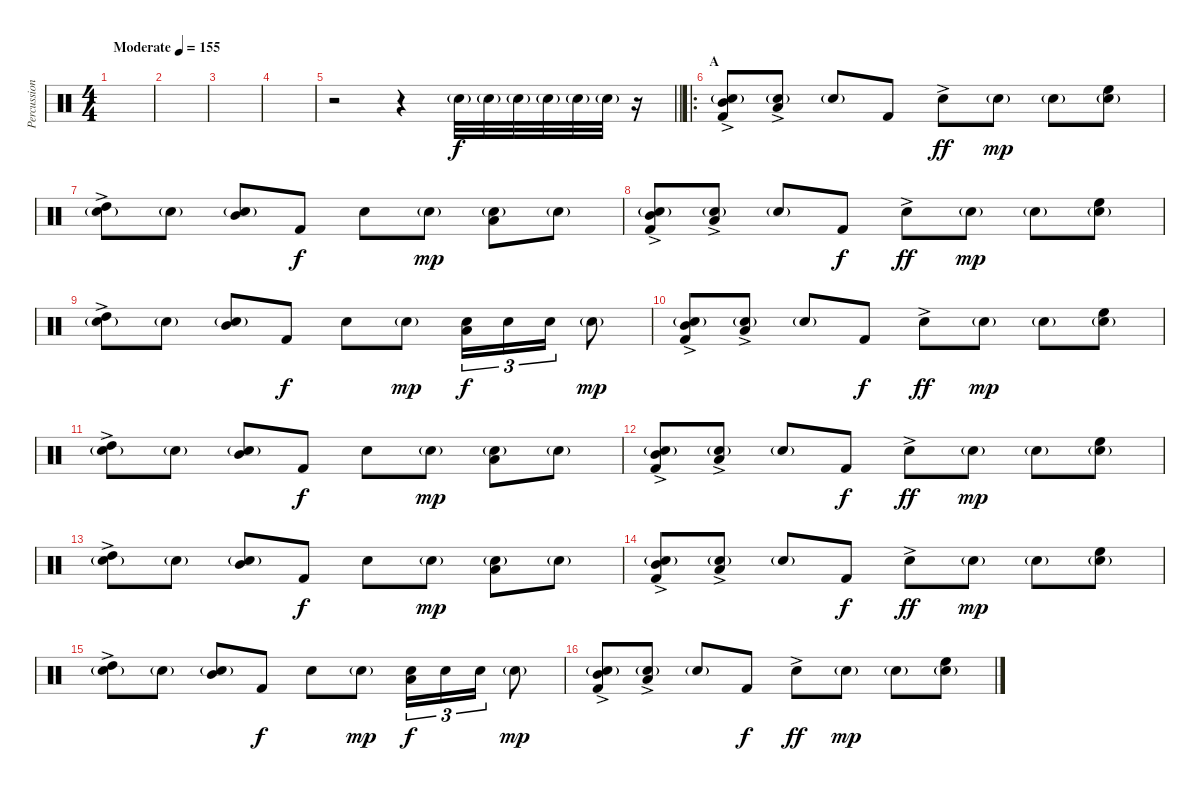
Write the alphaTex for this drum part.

\track ("Percussion" "Percussion") {instrument percussion}
\staff {score}
\articulation defaults
\ts (4 4)
\tempo (155 "Moderate")
\clef neutral
\ks c
|
|
|
|
\barLineRight lightlight
r.2 r.4 "Snare (hit) 2"{g}.32 "Snare (hit) 2"{g}.32 "Snare (hit) 2"{g}.32 "Snare (hit) 2"{g}.32 "Snare (hit) 2"{g}.32 "Snare (hit) 2"{g}.32 r.16 |
\ro
\section ("" "A")
("Mid Tom (hit)"{ac} "Snare (hit) 2"{g} "Kick (hit) 2").8 ("Low Tom (hit)"{ac} "Snare (hit) 2"{g}).8 "Snare (hit) 2"{g}.8 "Kick (hit) 2".8{dy f} "Snare (hit) 2"{ac}.8{dy ff} "Snare (hit) 2"{g}.8{dy mp} "Snare (hit) 2"{g}.8 ("High Floor Tom (hit)" "Snare (hit) 2"{g}).8 |
("High Tom (hit)"{ac} "Snare (hit) 2"{g}).8 "Snare (hit) 2"{g}.8 ("Mid Tom (hit)" "Snare (hit) 2"{g}).8 "Kick (hit) 2".8{dy f} "Snare (hit) 2".8 "Snare (hit) 2"{g}.8{dy mp} ("Low Tom (hit)" "Snare (hit) 2"{g}).8 "Snare (hit) 2"{g}.8 |
("Mid Tom (hit)"{ac} "Snare (hit) 2"{g} "Kick (hit) 2").8 ("Low Tom (hit)"{ac} "Snare (hit) 2"{g}).8 "Snare (hit) 2"{g}.8 "Kick (hit) 2".8{dy f} "Snare (hit) 2"{ac}.8{dy ff} "Snare (hit) 2"{g}.8{dy mp} "Snare (hit) 2"{g}.8 ("High Floor Tom (hit)" "Snare (hit) 2"{g}).8 |
("High Tom (hit)"{ac} "Snare (hit) 2"{g}).8 "Snare (hit) 2"{g}.8 ("Mid Tom (hit)" "Snare (hit) 2"{g}).8 "Kick (hit) 2".8{dy f} "Snare (hit) 2".8 "Snare (hit) 2"{g}.8{dy mp} ("Low Tom (hit)" "Snare (hit) 2").16{tu (3 2) dy f} "Snare (hit) 2".16{tu (3 2)} "Snare (hit) 2".16{tu (3 2)} "Snare (hit) 2"{g}.8{dy mp} |
("Mid Tom (hit)"{ac} "Snare (hit) 2"{g} "Kick (hit) 2").8 ("Low Tom (hit)"{ac} "Snare (hit) 2"{g}).8 "Snare (hit) 2"{g}.8 "Kick (hit) 2".8{dy f} "Snare (hit) 2"{ac}.8{dy ff} "Snare (hit) 2"{g}.8{dy mp} "Snare (hit) 2"{g}.8 ("High Floor Tom (hit)" "Snare (hit) 2"{g}).8 |
("High Tom (hit)"{ac} "Snare (hit) 2"{g}).8 "Snare (hit) 2"{g}.8 ("Mid Tom (hit)" "Snare (hit) 2"{g}).8 "Kick (hit) 2".8{dy f} "Snare (hit) 2".8 "Snare (hit) 2"{g}.8{dy mp} ("Low Tom (hit)" "Snare (hit) 2"{g}).8 "Snare (hit) 2"{g}.8 |
("Mid Tom (hit)"{ac} "Snare (hit) 2"{g} "Kick (hit) 2").8 ("Low Tom (hit)"{ac} "Snare (hit) 2"{g}).8 "Snare (hit) 2"{g}.8 "Kick (hit) 2".8{dy f} "Snare (hit) 2"{ac}.8{dy ff} "Snare (hit) 2"{g}.8{dy mp} "Snare (hit) 2"{g}.8 ("High Floor Tom (hit)" "Snare (hit) 2"{g}).8 |
("High Tom (hit)"{ac} "Snare (hit) 2"{g}).8 "Snare (hit) 2"{g}.8 ("Mid Tom (hit)" "Snare (hit) 2"{g}).8 "Kick (hit) 2".8{dy f} "Snare (hit) 2".8 "Snare (hit) 2"{g}.8{dy mp} ("Low Tom (hit)" "Snare (hit) 2"{g}).8 "Snare (hit) 2"{g}.8 |
("Mid Tom (hit)"{ac} "Snare (hit) 2"{g} "Kick (hit) 2").8 ("Low Tom (hit)"{ac} "Snare (hit) 2"{g}).8 "Snare (hit) 2"{g}.8 "Kick (hit) 2".8{dy f} "Snare (hit) 2"{ac}.8{dy ff} "Snare (hit) 2"{g}.8{dy mp} "Snare (hit) 2"{g}.8 ("High Floor Tom (hit)" "Snare (hit) 2"{g}).8 |
("High Tom (hit)"{ac} "Snare (hit) 2"{g}).8 "Snare (hit) 2"{g}.8 ("Mid Tom (hit)" "Snare (hit) 2"{g}).8 "Kick (hit) 2".8{dy f} "Snare (hit) 2".8 "Snare (hit) 2"{g}.8{dy mp} ("Low Tom (hit)" "Snare (hit) 2").16{tu (3 2) dy f} "Snare (hit) 2".16{tu (3 2)} "Snare (hit) 2".16{tu (3 2)} "Snare (hit) 2"{g}.8{dy mp} |
("Mid Tom (hit)"{ac} "Snare (hit) 2"{g} "Kick (hit) 2").8 ("Low Tom (hit)"{ac} "Snare (hit) 2"{g}).8 "Snare (hit) 2"{g}.8 "Kick (hit) 2".8{dy f} "Snare (hit) 2"{ac}.8{dy ff} "Snare (hit) 2"{g}.8{dy mp} "Snare (hit) 2"{g}.8 ("High Floor Tom (hit)" "Snare (hit) 2"{g}).8
